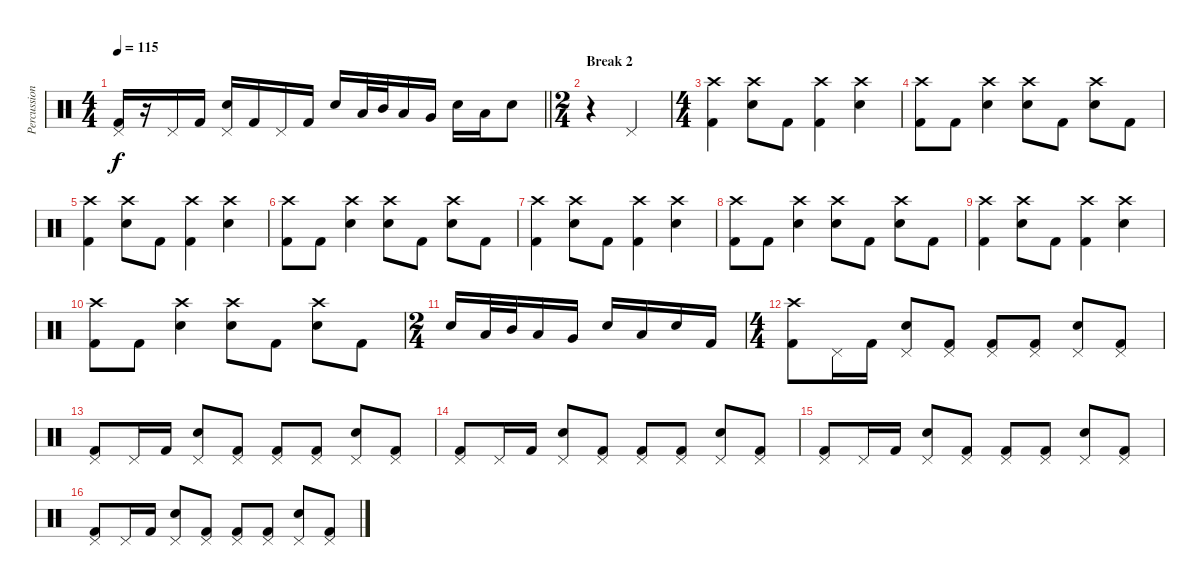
\track ("Percussion" "Percussion") {instrument percussion}
\staff {score}
\articulation defaults
\ts (4 4)
\tempo 115
\clef neutral
\barLineRight lightlight
\ks c
("Pedal Hi-Hat (hit)" "Kick (hit) 2").16{dy f} r.16 "Pedal Hi-Hat (hit)".16 "Kick (hit) 2".16 ("Pedal Hi-Hat (hit)" "Electric Snare (hit)").16 "Kick (hit) 2".16 "Pedal Hi-Hat (hit)".16 "Kick (hit) 2".16 "Snare (hit) 2".16 "Low Tom (hit)".32 "Mid Tom (hit)".32 "Low Tom (hit)".16 "Very Low Tom (hit)".16 "Snare (hit) 2".16 "Low Tom (hit)".16 "Snare (hit) 2".8 |
\ts (2 4)
\section ("" "Break 2")
r.4 "Pedal Hi-Hat (hit)".4 |
\ts (4 4)
("Crash high (hit)" "Kick (hit) 2").4 ("Crash high (hit)" "Electric Snare (hit)").8 "Kick (hit) 2".8 ("Crash high (hit)" "Kick (hit) 2").4 ("Crash high (hit)" "Electric Snare (hit)").4 |
("Crash high (hit)" "Kick (hit) 2").8 "Kick (hit) 2".8 ("Crash high (hit)" "Electric Snare (hit)").4 ("Crash high (hit)" "Electric Snare (hit)").8 "Kick (hit) 2".8 ("Crash high (hit)" "Electric Snare (hit)").8 "Kick (hit) 2".8 |
("Crash high (hit)" "Kick (hit) 2").4 ("Crash high (hit)" "Electric Snare (hit)").8 "Kick (hit) 2".8 ("Crash high (hit)" "Kick (hit) 2").4 ("Crash high (hit)" "Electric Snare (hit)").4 |
("Crash high (hit)" "Kick (hit) 2").8 "Kick (hit) 2".8 ("Crash high (hit)" "Electric Snare (hit)").4 ("Crash high (hit)" "Electric Snare (hit)").8 "Kick (hit) 2".8 ("Crash high (hit)" "Electric Snare (hit)").8 "Kick (hit) 2".8 |
("Crash high (hit)" "Kick (hit) 2").4 ("Crash high (hit)" "Electric Snare (hit)").8 "Kick (hit) 2".8 ("Crash high (hit)" "Kick (hit) 2").4 ("Crash high (hit)" "Electric Snare (hit)").4 |
("Crash high (hit)" "Kick (hit) 2").8 "Kick (hit) 2".8 ("Crash high (hit)" "Electric Snare (hit)").4 ("Crash high (hit)" "Electric Snare (hit)").8 "Kick (hit) 2".8 ("Crash high (hit)" "Electric Snare (hit)").8 "Kick (hit) 2".8 |
("Crash high (hit)" "Kick (hit) 2").4 ("Crash high (hit)" "Electric Snare (hit)").8 "Kick (hit) 2".8 ("Crash high (hit)" "Kick (hit) 2").4 ("Crash high (hit)" "Electric Snare (hit)").4 |
("Crash high (hit)" "Kick (hit) 2").8 "Kick (hit) 2".8 ("Crash high (hit)" "Electric Snare (hit)").4 ("Crash high (hit)" "Electric Snare (hit)").8 "Kick (hit) 2".8 ("Crash high (hit)" "Electric Snare (hit)").8 "Kick (hit) 2".8 |
\ts (2 4)
"Snare (hit) 2".16 "Low Tom (hit)".32 "Mid Tom (hit)".32 "Low Tom (hit)".16 "Very Low Tom (hit)".16 "Snare (hit) 2".16 "Low Tom (hit)".16 "Snare (hit) 2".16 "Kick (hit) 2".16 |
\ts (4 4)
("Crash high (hit)" "Kick (hit) 2").8 "Pedal Hi-Hat (hit)".16 "Kick (hit) 2".16 ("Pedal Hi-Hat (hit)" "Electric Snare (hit)").8 ("Pedal Hi-Hat (hit)" "Kick (hit) 2").8 ("Pedal Hi-Hat (hit)" "Kick (hit) 2").8 ("Pedal Hi-Hat (hit)" "Kick (hit) 2").8 ("Pedal Hi-Hat (hit)" "Electric Snare (hit)").8 ("Pedal Hi-Hat (hit)" "Kick (hit) 2").8 |
("Pedal Hi-Hat (hit)" "Kick (hit) 2").8 "Pedal Hi-Hat (hit)".16 "Kick (hit) 2".16 ("Pedal Hi-Hat (hit)" "Electric Snare (hit)").8 ("Pedal Hi-Hat (hit)" "Kick (hit) 2").8 ("Pedal Hi-Hat (hit)" "Kick (hit) 2").8 ("Pedal Hi-Hat (hit)" "Kick (hit) 2").8 ("Pedal Hi-Hat (hit)" "Electric Snare (hit)").8 ("Pedal Hi-Hat (hit)" "Kick (hit) 2").8 |
("Pedal Hi-Hat (hit)" "Kick (hit) 2").8 "Pedal Hi-Hat (hit)".16 "Kick (hit) 2".16 ("Pedal Hi-Hat (hit)" "Electric Snare (hit)").8 ("Pedal Hi-Hat (hit)" "Kick (hit) 2").8 ("Pedal Hi-Hat (hit)" "Kick (hit) 2").8 ("Pedal Hi-Hat (hit)" "Kick (hit) 2").8 ("Pedal Hi-Hat (hit)" "Electric Snare (hit)").8 ("Pedal Hi-Hat (hit)" "Kick (hit) 2").8 |
("Pedal Hi-Hat (hit)" "Kick (hit) 2").8 "Pedal Hi-Hat (hit)".16 "Kick (hit) 2".16 ("Pedal Hi-Hat (hit)" "Electric Snare (hit)").8 ("Pedal Hi-Hat (hit)" "Kick (hit) 2").8 ("Pedal Hi-Hat (hit)" "Kick (hit) 2").8 ("Pedal Hi-Hat (hit)" "Kick (hit) 2").8 ("Pedal Hi-Hat (hit)" "Electric Snare (hit)").8 ("Pedal Hi-Hat (hit)" "Kick (hit) 2").8 |
("Pedal Hi-Hat (hit)" "Kick (hit) 2").8 "Pedal Hi-Hat (hit)".16 "Kick (hit) 2".16 ("Pedal Hi-Hat (hit)" "Electric Snare (hit)").8 ("Pedal Hi-Hat (hit)" "Kick (hit) 2").8 ("Pedal Hi-Hat (hit)" "Kick (hit) 2").8 ("Pedal Hi-Hat (hit)" "Kick (hit) 2").8 ("Pedal Hi-Hat (hit)" "Electric Snare (hit)").8 ("Pedal Hi-Hat (hit)" "Kick (hit) 2").8
